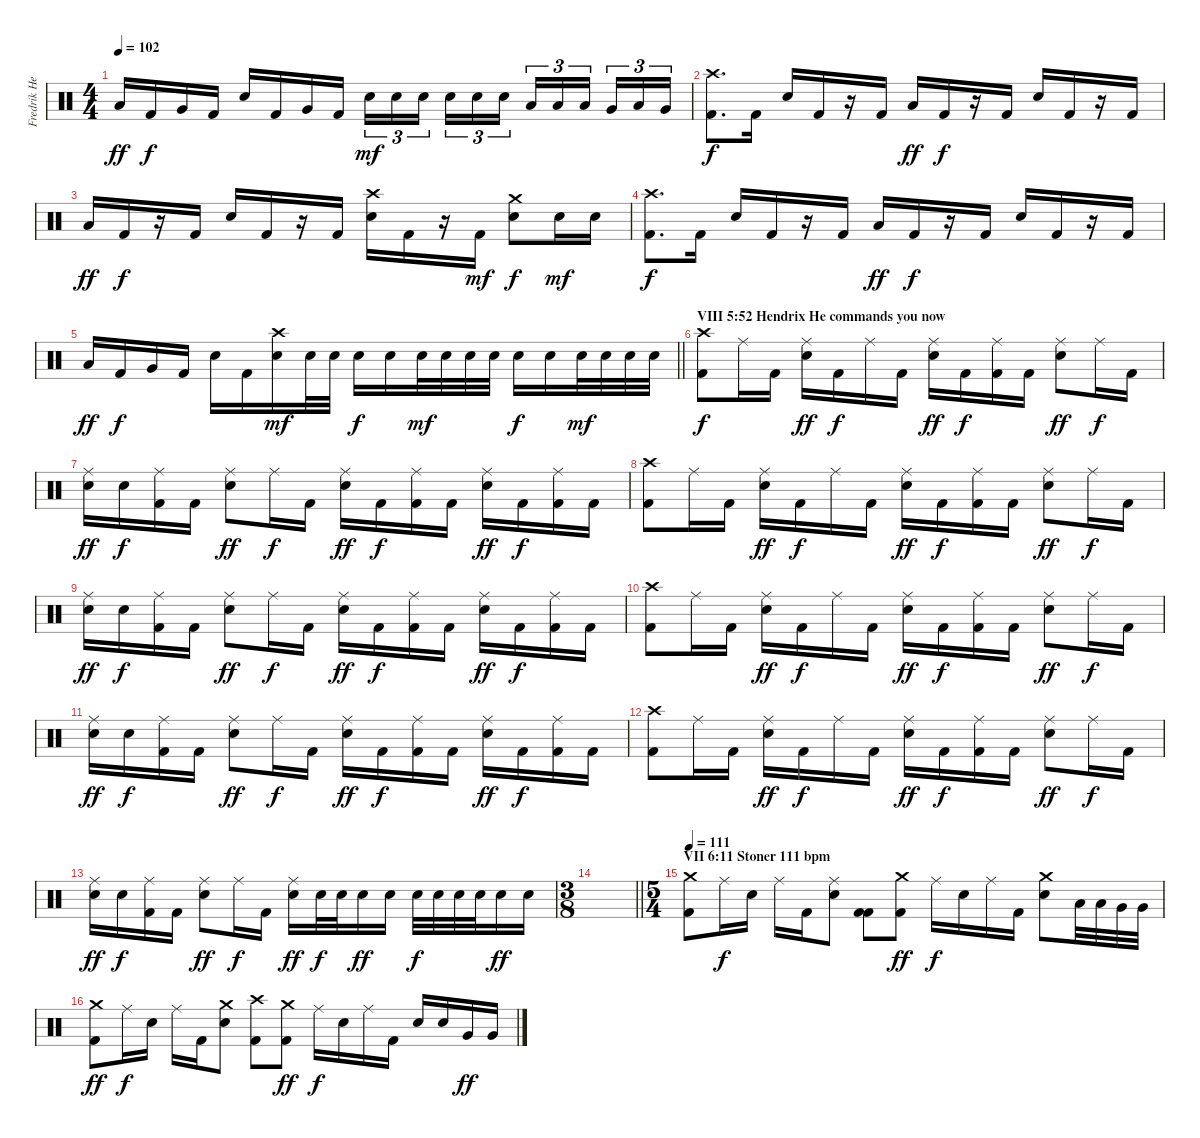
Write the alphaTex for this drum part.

\track ("Fredrik Hellerström (Drums)" "Fredrik He") {instrument percussion}
\staff
\articulation defaults
\ts (4 4)
\tempo 102
\clef neutral
\ks c "Low Tom (hit)".16{dy ff} "Kick (hit) 2".16{dy f} "Very Low Tom (hit)".16 "Kick (hit) 2".16 "Electric Snare (hit)".16 "Kick (hit) 2".16 "Very Low Tom (hit)".16 "Kick (hit) 2".16 "Electric Snare (hit)".16{tu (3 2) dy mf} "Electric Snare (hit)".16{tu (3 2)} "Electric Snare (hit)".16{tu (3 2) beam splitsecondary} "Electric Snare (hit)".16{tu (3 2)} "Electric Snare (hit)".16{tu (3 2)} "Electric Snare (hit)".16{tu (3 2)} "Low Tom (hit)".16{tu (3 2)} "Low Tom (hit)".16{tu (3 2)} "Low Tom (hit)".16{tu (3 2) beam splitsecondary} "Very Low Tom (hit)".16{tu (3 2)} "Low Tom (hit)".16{tu (3 2)} "Very Low Tom (hit)".16{tu (3 2)}
|
("Crash high (hit)" "Kick (hit) 2").8{d dy f} "Kick (hit) 2".16 "Electric Snare (hit)".16 "Kick (hit) 2".16 r.16 "Kick (hit) 2".16 "Low Tom (hit)".16{dy ff} "Kick (hit) 2".16{dy f} r.16 "Kick (hit) 2".16 "Electric Snare (hit)".16 "Kick (hit) 2".16 r.16 "Kick (hit) 2".16 |
"Low Tom (hit)".16{dy ff} "Kick (hit) 2".16{dy f} r.16 "Kick (hit) 2".16 "Electric Snare (hit)".16 "Kick (hit) 2".16 r.16 "Kick (hit) 2".16 ("Crash high (hit)" "Electric Snare (hit)").16 "Kick (hit) 2".16 r.16 "Kick (hit) 2".16{dy mf} ("Crash medium (hit)" "Electric Snare (hit)").8{dy f} "Electric Snare (hit)".16{dy mf} "Electric Snare (hit)".16 |
("Crash high (hit)" "Kick (hit) 2").8{d dy f} "Kick (hit) 2".16 "Electric Snare (hit)".16 "Kick (hit) 2".16 r.16 "Kick (hit) 2".16 "Low Tom (hit)".16{dy ff} "Kick (hit) 2".16{dy f} r.16 "Kick (hit) 2".16 "Electric Snare (hit)".16 "Kick (hit) 2".16 r.16 "Kick (hit) 2".16 |
\barLineRight lightlight "Low Tom (hit)".16{dy ff} "Kick (hit) 2".16{dy f} "Very Low Tom (hit)".16 "Kick (hit) 2".16 "Electric Snare (hit)".16 "Kick (hit) 2".16
("Crash high (hit)" "Electric Snare (hit)").16{dy mf} "Electric Snare (hit)".32 "Electric Snare (hit)".32 "Electric Snare (hit)".16{dy f} "Electric Snare (hit)".16 "Electric Snare (hit)".32{dy mf} "Electric Snare (hit)".32 "Electric Snare (hit)".32 "Electric Snare (hit)".32 "Electric Snare (hit)".16{dy f} "Electric Snare (hit)".16 "Electric Snare (hit)".32{dy mf} "Electric Snare (hit)".32 "Electric Snare (hit)".32 "Electric Snare (hit)".32 |
\section ("" "VIII 5:52 Hendrix He commands you now")
("Crash high (hit)" "Kick (hit) 2").8{dy f} "Ride (middle)".16 "Kick (hit) 2".16 ("Ride (middle)" "Electric Snare (hit)").16{dy ff} "Kick (hit) 2".16{dy f} "Ride (middle)".16 "Kick (hit) 2".16 ("Ride (middle)" "Electric Snare (hit)").16{dy ff} "Kick (hit) 2".16{dy f} ("Ride (middle)" "Kick (hit) 2").16 "Kick (hit) 2".16 ("Ride (middle)" "Electric Snare (hit)").8{dy ff} "Ride (middle)".16{dy f} "Kick (hit) 2".16 |
("Ride (middle)" "Electric Snare (hit)").16{dy ff} "Electric Snare (hit)".16{dy f} ("Ride (middle)" "Kick (hit) 2").16 "Kick (hit) 2".16 ("Ride (middle)" "Electric Snare (hit)").8{dy ff} "Ride (middle)".16{dy f} "Kick (hit) 2".16 ("Ride (middle)" "Electric Snare (hit)").16{dy ff} "Kick (hit) 2".16{dy f} ("Ride (middle)" "Kick (hit) 2").16 "Kick (hit) 2".16 ("Ride (middle)" "Electric Snare (hit)").16{dy ff} "Kick (hit) 2".16{dy f} ("Ride (middle)" "Kick (hit) 2").16 "Kick (hit) 2".16 |
("Crash high (hit)" "Kick (hit) 2").8 "Ride (middle)".16 "Kick (hit) 2".16 ("Ride (middle)" "Electric Snare (hit)").16{dy ff} "Kick (hit) 2".16{dy f} "Ride (middle)".16 "Kick (hit) 2".16 ("Ride (middle)" "Electric Snare (hit)").16{dy ff} "Kick (hit) 2".16{dy f} ("Ride (middle)" "Kick (hit) 2").16 "Kick (hit) 2".16 ("Ride (middle)" "Electric Snare (hit)").8{dy ff} "Ride (middle)".16{dy f} "Kick (hit) 2".16 |
("Ride (middle)" "Electric Snare (hit)").16{dy ff} "Electric Snare (hit)".16{dy f} ("Ride (middle)" "Kick (hit) 2").16 "Kick (hit) 2".16 ("Ride (middle)" "Electric Snare (hit)").8{dy ff} "Ride (middle)".16{dy f} "Kick (hit) 2".16 ("Ride (middle)" "Electric Snare (hit)").16{dy ff} "Kick (hit) 2".16{dy f} ("Ride (middle)" "Kick (hit) 2").16 "Kick (hit) 2".16 ("Ride (middle)" "Electric Snare (hit)").16{dy ff} "Kick (hit) 2".16{dy f} ("Ride (middle)" "Kick (hit) 2").16 "Kick (hit) 2".16 |
("Crash high (hit)" "Kick (hit) 2").8 "Ride (middle)".16 "Kick (hit) 2".16 ("Ride (middle)" "Electric Snare (hit)").16{dy ff} "Kick (hit) 2".16{dy f} "Ride (middle)".16 "Kick (hit) 2".16 ("Ride (middle)" "Electric Snare (hit)").16{dy ff} "Kick (hit) 2".16{dy f} ("Ride (middle)" "Kick (hit) 2").16 "Kick (hit) 2".16 ("Ride (middle)" "Electric Snare (hit)").8{dy ff} "Ride (middle)".16{dy f} "Kick (hit) 2".16 |
("Ride (middle)" "Electric Snare (hit)").16{dy ff} "Electric Snare (hit)".16{dy f} ("Ride (middle)" "Kick (hit) 2").16 "Kick (hit) 2".16 ("Ride (middle)" "Electric Snare (hit)").8{dy ff} "Ride (middle)".16{dy f} "Kick (hit) 2".16 ("Ride (middle)" "Electric Snare (hit)").16{dy ff} "Kick (hit) 2".16{dy f} ("Ride (middle)" "Kick (hit) 2").16 "Kick (hit) 2".16 ("Ride (middle)" "Electric Snare (hit)").16{dy ff} "Kick (hit) 2".16{dy f} ("Ride (middle)" "Kick (hit) 2").16 "Kick (hit) 2".16 |
("Crash high (hit)" "Kick (hit) 2").8 "Ride (middle)".16 "Kick (hit) 2".16 ("Ride (middle)" "Electric Snare (hit)").16{dy ff} "Kick (hit) 2".16{dy f} "Ride (middle)".16 "Kick (hit) 2".16 ("Ride (middle)" "Electric Snare (hit)").16{dy ff} "Kick (hit) 2".16{dy f} ("Ride (middle)" "Kick (hit) 2").16 "Kick (hit) 2".16 ("Ride (middle)" "Electric Snare (hit)").8{dy ff} "Ride (middle)".16{dy f} "Kick (hit) 2".16 |
("Ride (middle)" "Electric Snare (hit)").16{dy ff} "Electric Snare (hit)".16{dy f} ("Ride (middle)" "Kick (hit) 2").16 "Kick (hit) 2".16 ("Ride (middle)" "Electric Snare (hit)").8{dy ff} "Ride (middle)".16{dy f} "Kick (hit) 2".16 ("Ride (middle)" "Electric Snare (hit)").16{dy ff} "Electric Snare (hit)".32{dy f} "Electric Snare (hit)".32 "Electric Snare (hit)".16{dy ff} "Electric Snare (hit)".16 "Electric Snare (hit)".32{dy f} "Electric Snare (hit)".32 "Electric Snare (hit)".32 "Electric Snare (hit)".32 "Electric Snare (hit)".16{dy ff} "Electric Snare (hit)".16 |
\ts (3 8)
\barLineRight lightlight
|
\ts (5 4)
\section ("" "VII 6:11 Stoner 111 bpm")
\tempo 111
("Crash medium (hit)" "Kick (hit) 2").8 "Ride (middle)".16{dy f} "Electric Snare (hit)".16 "Ride (middle)".16 "Kick (hit) 2".16 ("Ride (middle)" "Electric Snare (hit)").8 ("Kick (hit) 2" "Kick (hit) 2").8 ("Crash medium (hit)" "Kick (hit) 2").8{dy ff} "Ride (middle)".16{dy f} "Electric Snare (hit)".16 "Ride (middle)".16 "Kick (hit) 2".16 ("Crash medium (hit)" "Electric Snare (hit)").8 "Low Tom (hit)".32 "Low Tom (hit)".32 "Very Low Tom (hit)".32 "Very Low Tom (hit)".32 |
("Crash medium (hit)" "Kick (hit) 2").8{dy ff} "Ride (middle)".16{dy f} "Electric Snare (hit)".16 "Ride (middle)".16 "Kick (hit) 2".16 ("Crash medium (hit)" "Electric Snare (hit)").8 ("Crash high (hit)" "Kick (hit) 2").8 ("Crash medium (hit)" "Kick (hit) 2").8{dy ff} "Ride (middle)".16{dy f} "Electric Snare (hit)".16 "Ride (middle)".16 "Kick (hit) 2".16 "Electric Snare (hit)".16 "Electric Snare (hit)".16 "Very Low Tom (hit)".16{dy ff} "Very Low Tom (hit)".16
